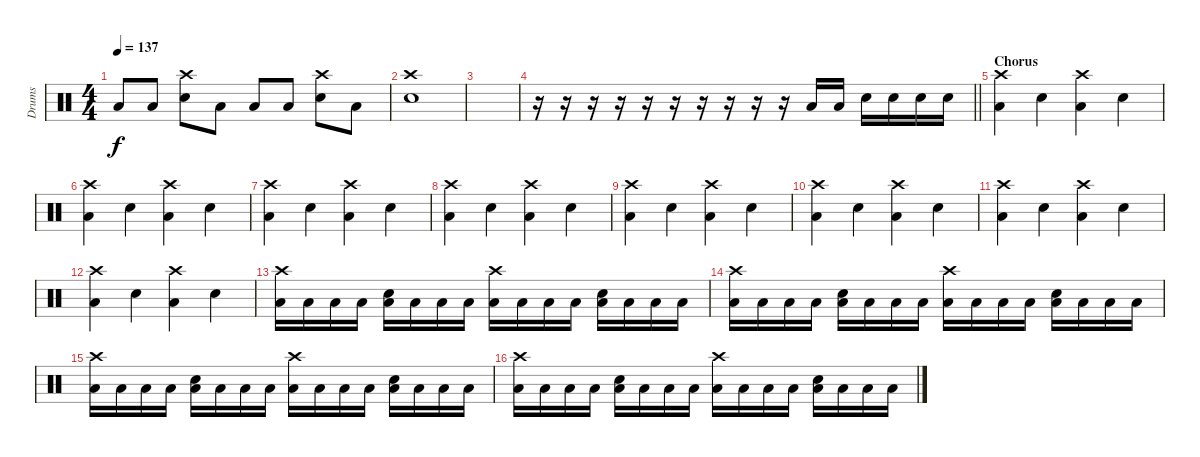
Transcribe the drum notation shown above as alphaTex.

\track ("Drums" "Drums") {instrument percussion}
\staff {score}
\articulation defaults
\ts (4 4)
\tempo 137
\clef neutral
\ks c "Low Floor Tom (hit)".8{dy f} "Low Floor Tom (hit)".8
("Crash high (hit)" "Electric Snare (hit)").8 "Low Floor Tom (hit)".8 "Low Floor Tom (hit)".8 "Low Floor Tom (hit)".8 ("Crash high (hit)" "Electric Snare (hit)").8 "Low Floor Tom (hit)".8 |
("Electric Snare (hit)" "Crash high (hit)").1 |
|
\barLineRight lightlight
r.16 r.16 r.16 r.16 r.16 r.16 r.16 r.16 r.16 r.16 "Low Floor Tom (hit)".16 "Low Floor Tom (hit)".16 "Electric Snare (hit)".16 "Electric Snare (hit)".16 "Electric Snare (hit)".16 "Electric Snare (hit)".16 |
\section ("" "Chorus")
("Crash high (hit)" "Low Floor Tom (hit)").4 "Electric Snare (hit)".4 ("Crash high (hit)" "Low Floor Tom (hit)").4 "Electric Snare (hit)".4 |
("Crash high (hit)" "Low Floor Tom (hit)").4 "Electric Snare (hit)".4 ("Crash high (hit)" "Low Floor Tom (hit)").4 "Electric Snare (hit)".4 |
("Crash high (hit)" "Low Floor Tom (hit)").4 "Electric Snare (hit)".4 ("Crash high (hit)" "Low Floor Tom (hit)").4 "Electric Snare (hit)".4 |
("Crash high (hit)" "Low Floor Tom (hit)").4 "Electric Snare (hit)".4 ("Crash high (hit)" "Low Floor Tom (hit)").4 "Electric Snare (hit)".4 |
("Crash high (hit)" "Low Floor Tom (hit)").4 "Electric Snare (hit)".4 ("Crash high (hit)" "Low Floor Tom (hit)").4 "Electric Snare (hit)".4 |
("Crash high (hit)" "Low Floor Tom (hit)").4 "Electric Snare (hit)".4 ("Crash high (hit)" "Low Floor Tom (hit)").4 "Electric Snare (hit)".4 |
("Crash high (hit)" "Low Floor Tom (hit)").4 "Electric Snare (hit)".4 ("Crash high (hit)" "Low Floor Tom (hit)").4 "Electric Snare (hit)".4 |
("Crash high (hit)" "Low Floor Tom (hit)").4 "Electric Snare (hit)".4 ("Crash high (hit)" "Low Floor Tom (hit)").4 "Electric Snare (hit)".4 |
("Crash high (hit)" "Low Floor Tom (hit)").16 "Low Floor Tom (hit)".16 "Low Floor Tom (hit)".16 "Low Floor Tom (hit)".16 ("Electric Snare (hit)" "Low Floor Tom (hit)").16 "Low Floor Tom (hit)".16 "Low Floor Tom (hit)".16 "Low Floor Tom (hit)".16 ("Crash high (hit)" "Low Floor Tom (hit)").16 "Low Floor Tom (hit)".16 "Low Floor Tom (hit)".16 "Low Floor Tom (hit)".16 ("Electric Snare (hit)" "Low Floor Tom (hit)").16 "Low Floor Tom (hit)".16 "Low Floor Tom (hit)".16 "Low Floor Tom (hit)".16 |
("Crash high (hit)" "Low Floor Tom (hit)").16 "Low Floor Tom (hit)".16 "Low Floor Tom (hit)".16 "Low Floor Tom (hit)".16 ("Electric Snare (hit)" "Low Floor Tom (hit)").16 "Low Floor Tom (hit)".16 "Low Floor Tom (hit)".16 "Low Floor Tom (hit)".16 ("Crash high (hit)" "Low Floor Tom (hit)").16 "Low Floor Tom (hit)".16 "Low Floor Tom (hit)".16 "Low Floor Tom (hit)".16 ("Electric Snare (hit)" "Low Floor Tom (hit)").16 "Low Floor Tom (hit)".16 "Low Floor Tom (hit)".16 "Low Floor Tom (hit)".16 |
("Crash high (hit)" "Low Floor Tom (hit)").16 "Low Floor Tom (hit)".16 "Low Floor Tom (hit)".16 "Low Floor Tom (hit)".16 ("Electric Snare (hit)" "Low Floor Tom (hit)").16 "Low Floor Tom (hit)".16 "Low Floor Tom (hit)".16 "Low Floor Tom (hit)".16 ("Crash high (hit)" "Low Floor Tom (hit)").16 "Low Floor Tom (hit)".16 "Low Floor Tom (hit)".16 "Low Floor Tom (hit)".16 ("Electric Snare (hit)" "Low Floor Tom (hit)").16 "Low Floor Tom (hit)".16 "Low Floor Tom (hit)".16 "Low Floor Tom (hit)".16 |
("Crash high (hit)" "Low Floor Tom (hit)").16 "Low Floor Tom (hit)".16 "Low Floor Tom (hit)".16 "Low Floor Tom (hit)".16 ("Electric Snare (hit)" "Low Floor Tom (hit)").16 "Low Floor Tom (hit)".16 "Low Floor Tom (hit)".16 "Low Floor Tom (hit)".16 ("Crash high (hit)" "Low Floor Tom (hit)").16 "Low Floor Tom (hit)".16 "Low Floor Tom (hit)".16 "Low Floor Tom (hit)".16 ("Electric Snare (hit)" "Low Floor Tom (hit)").16 "Low Floor Tom (hit)".16 "Low Floor Tom (hit)".16 "Low Floor Tom (hit)".16
